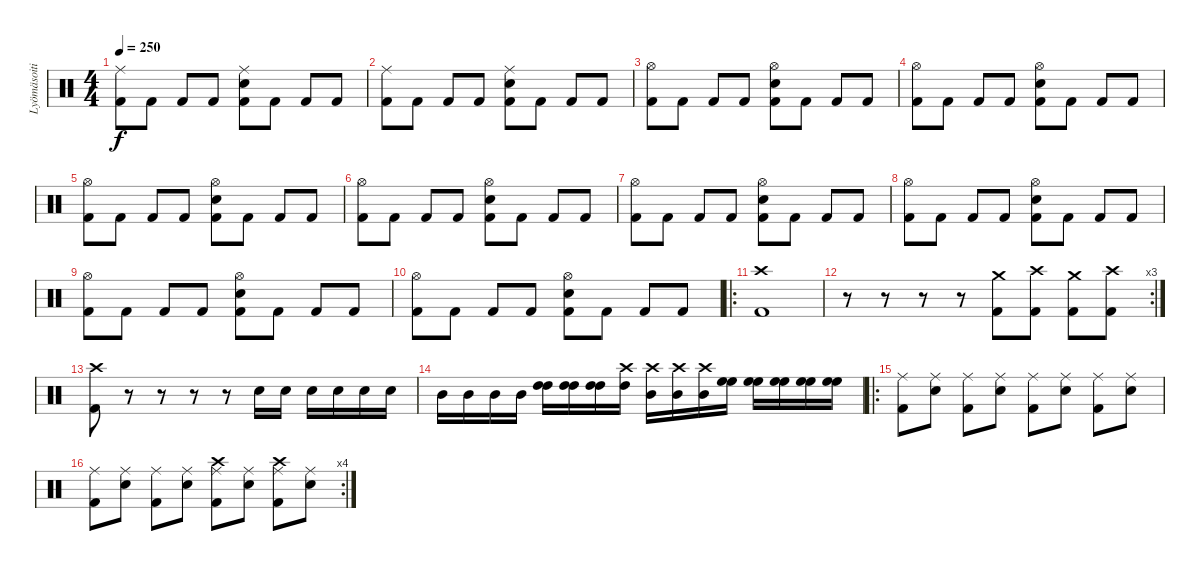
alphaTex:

\track ("Lyömäsoitin" "Lyömäsoiti") {instrument percussion}
\staff {score}
\articulation defaults
\ts (4 4)
\tempo 250
\clef neutral
\ks c
("Ride (middle)" "Kick (hit) 2").8{dy f} "Kick (hit) 2".8 "Kick (hit) 2".8 "Kick (hit) 2".8 ("Ride (middle)" "Electric Snare (hit)" "Kick (hit) 2").8 "Kick (hit) 2".8 "Kick (hit) 2".8 "Kick (hit) 2".8 |
("Ride (middle)" "Kick (hit) 2").8 "Kick (hit) 2".8 "Kick (hit) 2".8 "Kick (hit) 2".8 ("Ride (middle)" "Electric Snare (hit)" "Kick (hit) 2").8 "Kick (hit) 2".8 "Kick (hit) 2".8 "Kick (hit) 2".8 |
("Hi-Hat (open)" "Kick (hit) 2").8 "Kick (hit) 2".8 "Kick (hit) 2".8 "Kick (hit) 2".8 ("Hi-Hat (open)" "Electric Snare (hit)" "Kick (hit) 2").8 "Kick (hit) 2".8 "Kick (hit) 2".8 "Kick (hit) 2".8 |
("Hi-Hat (open)" "Kick (hit) 2").8 "Kick (hit) 2".8 "Kick (hit) 2".8 "Kick (hit) 2".8 ("Hi-Hat (open)" "Electric Snare (hit)" "Kick (hit) 2").8 "Kick (hit) 2".8 "Kick (hit) 2".8 "Kick (hit) 2".8 |
("Hi-Hat (open)" "Kick (hit) 2").8 "Kick (hit) 2".8 "Kick (hit) 2".8 "Kick (hit) 2".8 ("Hi-Hat (open)" "Electric Snare (hit)" "Kick (hit) 2").8 "Kick (hit) 2".8 "Kick (hit) 2".8 "Kick (hit) 2".8 |
("Hi-Hat (open)" "Kick (hit) 2").8 "Kick (hit) 2".8 "Kick (hit) 2".8 "Kick (hit) 2".8 ("Hi-Hat (open)" "Electric Snare (hit)" "Kick (hit) 2").8 "Kick (hit) 2".8 "Kick (hit) 2".8 "Kick (hit) 2".8 |
("Hi-Hat (open)" "Kick (hit) 2").8 "Kick (hit) 2".8 "Kick (hit) 2".8 "Kick (hit) 2".8 ("Hi-Hat (open)" "Electric Snare (hit)" "Kick (hit) 2").8 "Kick (hit) 2".8 "Kick (hit) 2".8 "Kick (hit) 2".8 |
("Hi-Hat (open)" "Kick (hit) 2").8 "Kick (hit) 2".8 "Kick (hit) 2".8 "Kick (hit) 2".8 ("Hi-Hat (open)" "Electric Snare (hit)" "Kick (hit) 2").8 "Kick (hit) 2".8 "Kick (hit) 2".8 "Kick (hit) 2".8 |
("Hi-Hat (open)" "Kick (hit) 2").8 "Kick (hit) 2".8 "Kick (hit) 2".8 "Kick (hit) 2".8 ("Hi-Hat (open)" "Electric Snare (hit)" "Kick (hit) 2").8 "Kick (hit) 2".8 "Kick (hit) 2".8 "Kick (hit) 2".8 |
("Hi-Hat (open)" "Kick (hit) 2").8 "Kick (hit) 2".8 "Kick (hit) 2".8 "Kick (hit) 2".8 ("Hi-Hat (open)" "Electric Snare (hit)" "Kick (hit) 2").8 "Kick (hit) 2".8 "Kick (hit) 2".8 "Kick (hit) 2".8 |
\ro
("Crash high (hit)" "Kick (hit) 2").1 |
\rc 3
r.8 r.8 r.8 r.8 ("Crash medium (hit)" "Kick (hit) 2").8 ("Crash high (hit)" "Kick (hit) 2").8 ("Crash medium (hit)" "Kick (hit) 2").8 ("Crash high (hit)" "Kick (hit) 2").8 |
("Crash high (hit)" "Kick (hit) 2").8 r.8 r.8 r.8 r.8 "Electric Snare (hit)".16 "Electric Snare (hit)".16 "Electric Snare (hit)".16 "Electric Snare (hit)".16 "Electric Snare (hit)".16 "Electric Snare (hit)".16 |
"Mid Tom (hit)".16 "Mid Tom (hit)".16 "Mid Tom (hit)".16 "Mid Tom (hit)".16 ("High Tom (hit)" "High Tom (hit)").16 ("High Tom (hit)" "High Tom (hit)").16 ("High Tom (hit)" "High Tom (hit)").16 ("High Tom (hit)" "Crash high (hit)").16 ("Mid Tom (hit)" "Crash high (hit)").16 ("Mid Tom (hit)" "Crash high (hit)").16 ("Mid Tom (hit)" "Crash high (hit)").16 ("High Floor Tom (hit)" "High Floor Tom (hit)").16 ("High Floor Tom (hit)" "High Floor Tom (hit)").16 ("High Floor Tom (hit)" "High Floor Tom (hit)").16 ("High Floor Tom (hit)" "High Floor Tom (hit)").16 ("High Floor Tom (hit)" "High Floor Tom (hit)").16 |
\ro
("Ride (middle)" "Kick (hit) 2").8 ("Ride (middle)" "Electric Snare (hit)").8 ("Ride (middle)" "Kick (hit) 2").8 ("Ride (middle)" "Electric Snare (hit)").8 ("Ride (middle)" "Kick (hit) 2").8 ("Ride (middle)" "Electric Snare (hit)").8 ("Ride (middle)" "Kick (hit) 2").8 ("Ride (middle)" "Electric Snare (hit)").8 |
\rc 4
("Ride (middle)" "Kick (hit) 2").8 ("Ride (middle)" "Electric Snare (hit)").8 ("Ride (middle)" "Kick (hit) 2").8 ("Ride (middle)" "Electric Snare (hit)").8 ("Crash high (hit)" "Ride (middle)" "Kick (hit) 2").8 ("Ride (middle)" "Electric Snare (hit)").8 ("Crash high (hit)" "Ride (middle)" "Kick (hit) 2").8 ("Ride (middle)" "Electric Snare (hit)").8
